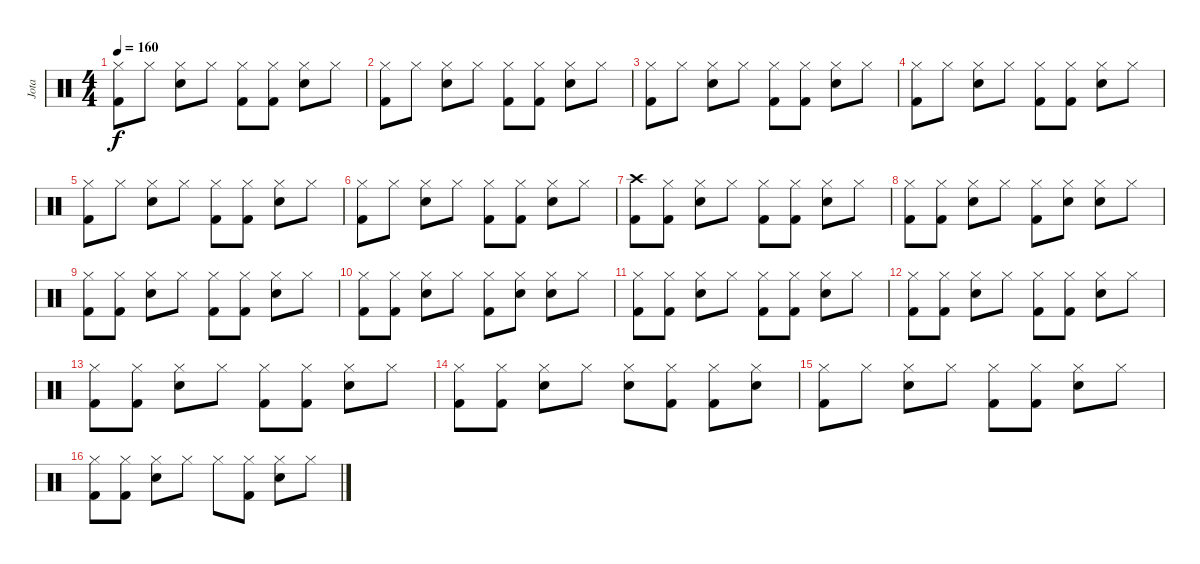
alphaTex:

\track ("Jota" "Jota") {instrument percussion}
\staff {score}
\articulation defaults
\ts (4 4)
\tempo 160
\clef neutral
\ks c
("Hi-Hat (closed)" "Kick (hit) 2").8{dy f} "Hi-Hat (closed)".8 ("Hi-Hat (closed)" "Electric Snare (hit)").8 "Hi-Hat (closed)".8 ("Hi-Hat (closed)" "Kick (hit) 2").8 ("Hi-Hat (closed)" "Kick (hit) 2").8 ("Hi-Hat (closed)" "Electric Snare (hit)").8 "Hi-Hat (closed)".8 |
("Hi-Hat (closed)" "Kick (hit) 2").8 "Hi-Hat (closed)".8 ("Hi-Hat (closed)" "Electric Snare (hit)").8 "Hi-Hat (closed)".8 ("Hi-Hat (closed)" "Kick (hit) 2").8 ("Hi-Hat (closed)" "Kick (hit) 2").8 ("Hi-Hat (closed)" "Electric Snare (hit)").8 "Hi-Hat (closed)".8 |
("Hi-Hat (closed)" "Kick (hit) 2").8 "Hi-Hat (closed)".8 ("Hi-Hat (closed)" "Electric Snare (hit)").8 "Hi-Hat (closed)".8 ("Hi-Hat (closed)" "Kick (hit) 2").8 ("Hi-Hat (closed)" "Kick (hit) 2").8 ("Hi-Hat (closed)" "Electric Snare (hit)").8 "Hi-Hat (closed)".8 |
("Hi-Hat (closed)" "Kick (hit) 2").8 "Hi-Hat (closed)".8 ("Hi-Hat (closed)" "Electric Snare (hit)").8 "Hi-Hat (closed)".8 ("Hi-Hat (closed)" "Kick (hit) 2").8 ("Hi-Hat (closed)" "Kick (hit) 2").8 ("Hi-Hat (closed)" "Electric Snare (hit)").8 "Hi-Hat (closed)".8 |
("Hi-Hat (closed)" "Kick (hit) 2").8 "Hi-Hat (closed)".8 ("Hi-Hat (closed)" "Electric Snare (hit)").8 "Hi-Hat (closed)".8 ("Hi-Hat (closed)" "Kick (hit) 2").8 ("Hi-Hat (closed)" "Kick (hit) 2").8 ("Hi-Hat (closed)" "Electric Snare (hit)").8 "Hi-Hat (closed)".8 |
("Hi-Hat (closed)" "Kick (hit) 2").8 "Hi-Hat (closed)".8 ("Hi-Hat (closed)" "Electric Snare (hit)").8 "Hi-Hat (closed)".8 ("Hi-Hat (closed)" "Kick (hit) 2").8 ("Hi-Hat (closed)" "Kick (hit) 2").8 ("Hi-Hat (closed)" "Electric Snare (hit)").8 "Hi-Hat (closed)".8 |
("Crash high (hit)" "Kick (hit) 2").8 ("Hi-Hat (closed)" "Kick (hit) 2").8 ("Hi-Hat (closed)" "Electric Snare (hit)").8 "Hi-Hat (closed)".8 ("Hi-Hat (closed)" "Kick (hit) 2").8 ("Hi-Hat (closed)" "Kick (hit) 2").8 ("Hi-Hat (closed)" "Electric Snare (hit)").8 "Hi-Hat (closed)".8 |
("Hi-Hat (closed)" "Kick (hit) 2").8 ("Hi-Hat (closed)" "Kick (hit) 2").8 ("Hi-Hat (closed)" "Electric Snare (hit)").8 "Hi-Hat (closed)".8 ("Hi-Hat (closed)" "Kick (hit) 2").8 ("Hi-Hat (closed)" "Electric Snare (hit)").8 ("Hi-Hat (closed)" "Electric Snare (hit)").8 "Hi-Hat (closed)".8 |
("Hi-Hat (closed)" "Kick (hit) 2").8 ("Hi-Hat (closed)" "Kick (hit) 2").8 ("Hi-Hat (closed)" "Electric Snare (hit)").8 "Hi-Hat (closed)".8 ("Hi-Hat (closed)" "Kick (hit) 2").8 ("Hi-Hat (closed)" "Kick (hit) 2").8 ("Hi-Hat (closed)" "Electric Snare (hit)").8 "Hi-Hat (closed)".8 |
("Hi-Hat (closed)" "Kick (hit) 2").8 ("Hi-Hat (closed)" "Kick (hit) 2").8 ("Hi-Hat (closed)" "Electric Snare (hit)").8 "Hi-Hat (closed)".8 ("Hi-Hat (closed)" "Kick (hit) 2").8 ("Hi-Hat (closed)" "Electric Snare (hit)").8 ("Hi-Hat (closed)" "Electric Snare (hit)").8 "Hi-Hat (closed)".8 |
("Hi-Hat (closed)" "Kick (hit) 2").8 ("Hi-Hat (closed)" "Kick (hit) 2").8 ("Hi-Hat (closed)" "Electric Snare (hit)").8 "Hi-Hat (closed)".8 ("Hi-Hat (closed)" "Kick (hit) 2").8 ("Hi-Hat (closed)" "Kick (hit) 2").8 ("Hi-Hat (closed)" "Electric Snare (hit)").8 "Hi-Hat (closed)".8 |
("Hi-Hat (closed)" "Kick (hit) 2").8 ("Hi-Hat (closed)" "Kick (hit) 2").8 ("Hi-Hat (closed)" "Electric Snare (hit)").8 "Hi-Hat (closed)".8 ("Hi-Hat (closed)" "Kick (hit) 2").8 ("Hi-Hat (closed)" "Kick (hit) 2").8 ("Hi-Hat (closed)" "Electric Snare (hit)").8 "Hi-Hat (closed)".8 |
("Hi-Hat (closed)" "Kick (hit) 2").8 ("Hi-Hat (closed)" "Kick (hit) 2").8 ("Hi-Hat (closed)" "Electric Snare (hit)").8 "Hi-Hat (closed)".8 ("Hi-Hat (closed)" "Kick (hit) 2").8 ("Hi-Hat (closed)" "Kick (hit) 2").8 ("Hi-Hat (closed)" "Electric Snare (hit)").8 "Hi-Hat (closed)".8 |
("Hi-Hat (closed)" "Kick (hit) 2").8 ("Hi-Hat (closed)" "Kick (hit) 2").8 ("Hi-Hat (closed)" "Electric Snare (hit)").8 "Hi-Hat (closed)".8 ("Hi-Hat (closed)" "Electric Snare (hit)").8 ("Hi-Hat (closed)" "Kick (hit) 2").8 ("Hi-Hat (closed)" "Kick (hit) 2").8 ("Hi-Hat (closed)" "Electric Snare (hit)").8 |
("Hi-Hat (closed)" "Kick (hit) 2").8 "Hi-Hat (closed)".8 ("Hi-Hat (closed)" "Electric Snare (hit)").8 "Hi-Hat (closed)".8 ("Hi-Hat (closed)" "Kick (hit) 2").8 ("Hi-Hat (closed)" "Kick (hit) 2").8 ("Hi-Hat (closed)" "Electric Snare (hit)").8 "Hi-Hat (closed)".8 |
("Hi-Hat (closed)" "Kick (hit) 2").8 ("Hi-Hat (closed)" "Kick (hit) 2").8 ("Hi-Hat (closed)" "Electric Snare (hit)").8 "Hi-Hat (closed)".8 "Hi-Hat (closed)".8 ("Hi-Hat (closed)" "Kick (hit) 2").8 ("Hi-Hat (closed)" "Electric Snare (hit)").8 "Hi-Hat (closed)".8
